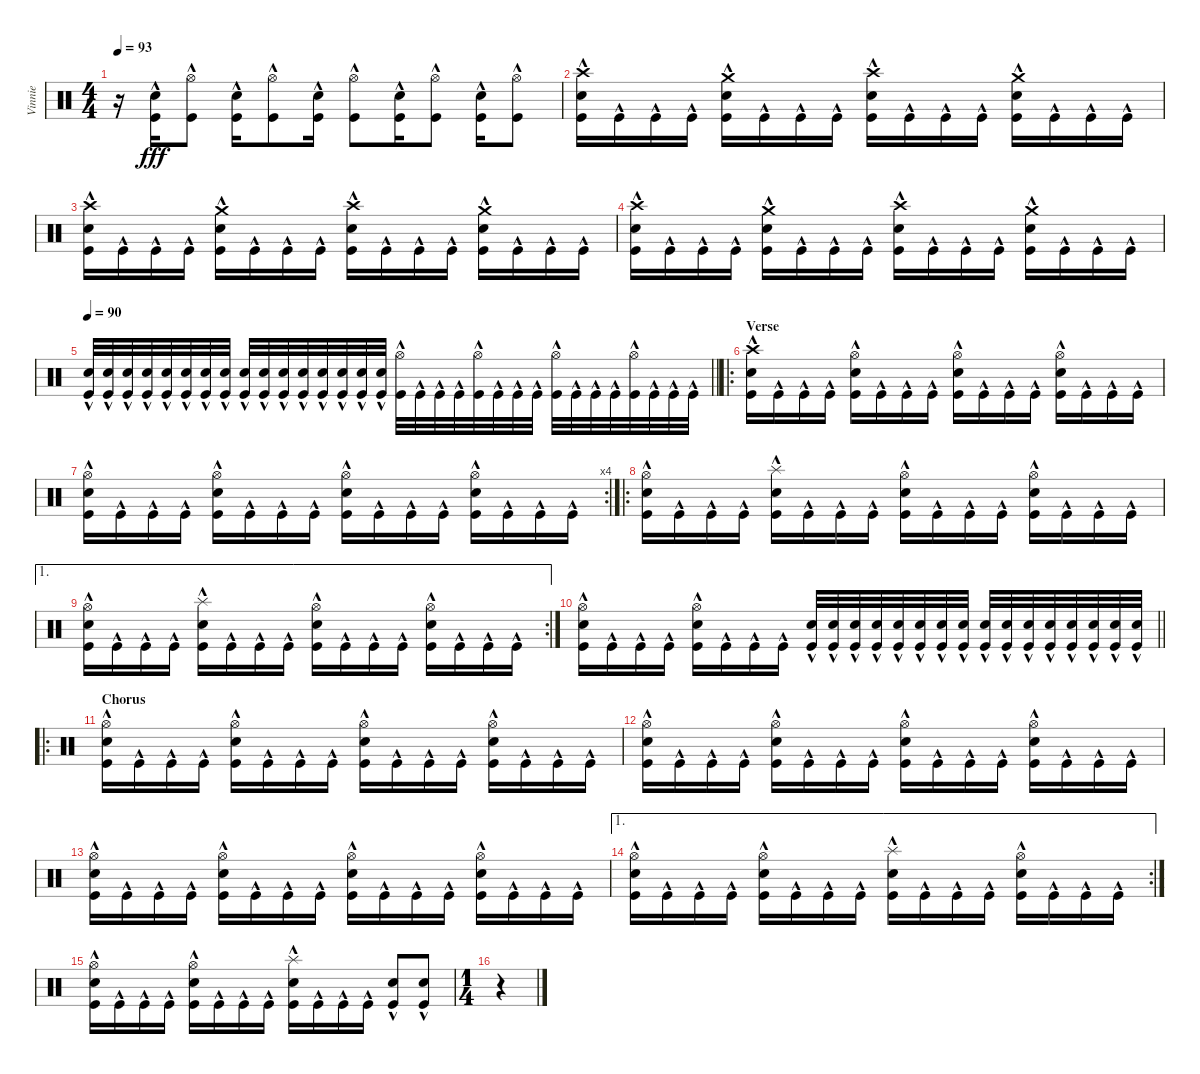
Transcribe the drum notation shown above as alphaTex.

\track ("Vinnie" "Vinnie") {instrument percussion}
\staff {score}
\articulation defaults
\ts (4 4)
\tempo 93
\clef neutral
\ks c
r.16{dy fff} ("Electric Snare (hit)" "Kick (hit)"{hac}).16 ("Hi-Hat (open)" "Kick (hit)"{hac}).8 ("Electric Snare (hit)" "Kick (hit)"{hac}).16 ("Hi-Hat (open)" "Kick (hit)"{hac}).8 ("Electric Snare (hit)" "Kick (hit)"{hac}).16 ("Hi-Hat (open)" "Kick (hit)"{hac}).8 ("Electric Snare (hit)" "Kick (hit)"{hac}).16 ("Hi-Hat (open)" "Kick (hit)"{hac}).8 ("Electric Snare (hit)" "Kick (hit)"{hac}).16 ("Hi-Hat (open)" "Kick (hit)"{hac}).8 |
("Crash high (hit)" "Electric Snare (hit)" "Kick (hit)"{hac}).16 "Kick (hit)"{hac}.16 "Kick (hit)"{hac}.16 "Kick (hit)"{hac}.16 ("Crash medium (hit)" "Electric Snare (hit)" "Kick (hit)"{hac}).16 "Kick (hit)"{hac}.16 "Kick (hit)"{hac}.16 "Kick (hit)"{hac}.16 ("Crash high (hit)" "Electric Snare (hit)" "Kick (hit)"{hac}).16 "Kick (hit)"{hac}.16 "Kick (hit)"{hac}.16 "Kick (hit)"{hac}.16 ("Crash medium (hit)" "Electric Snare (hit)" "Kick (hit)"{hac}).16 "Kick (hit)"{hac}.16 "Kick (hit)"{hac}.16 "Kick (hit)"{hac}.16 |
("Crash high (hit)" "Electric Snare (hit)" "Kick (hit)"{hac}).16 "Kick (hit)"{hac}.16 "Kick (hit)"{hac}.16 "Kick (hit)"{hac}.16 ("Crash medium (hit)" "Electric Snare (hit)" "Kick (hit)"{hac}).16 "Kick (hit)"{hac}.16 "Kick (hit)"{hac}.16 "Kick (hit)"{hac}.16 ("Crash high (hit)" "Electric Snare (hit)" "Kick (hit)"{hac}).16 "Kick (hit)"{hac}.16 "Kick (hit)"{hac}.16 "Kick (hit)"{hac}.16 ("Crash medium (hit)" "Electric Snare (hit)" "Kick (hit)"{hac}).16 "Kick (hit)"{hac}.16 "Kick (hit)"{hac}.16 "Kick (hit)"{hac}.16 |
("Crash high (hit)" "Electric Snare (hit)" "Kick (hit)"{hac}).16 "Kick (hit)"{hac}.16 "Kick (hit)"{hac}.16 "Kick (hit)"{hac}.16 ("Crash medium (hit)" "Electric Snare (hit)" "Kick (hit)"{hac}).16 "Kick (hit)"{hac}.16 "Kick (hit)"{hac}.16 "Kick (hit)"{hac}.16 ("Crash high (hit)" "Electric Snare (hit)" "Kick (hit)"{hac}).16 "Kick (hit)"{hac}.16 "Kick (hit)"{hac}.16 "Kick (hit)"{hac}.16 ("Crash medium (hit)" "Electric Snare (hit)" "Kick (hit)"{hac}).16 "Kick (hit)"{hac}.16 "Kick (hit)"{hac}.16 "Kick (hit)"{hac}.16 |
\tempo 90
\barLineRight lightlight
("Electric Snare (hit)" "Kick (hit)"{hac}).32 ("Electric Snare (hit)" "Kick (hit)"{hac}).32 ("Electric Snare (hit)" "Kick (hit)"{hac}).32 ("Electric Snare (hit)" "Kick (hit)"{hac}).32 ("Electric Snare (hit)" "Kick (hit)"{hac}).32 ("Electric Snare (hit)" "Kick (hit)"{hac}).32 ("Electric Snare (hit)" "Kick (hit)"{hac}).32 ("Electric Snare (hit)" "Kick (hit)"{hac}).32 ("Electric Snare (hit)" "Kick (hit)"{hac}).32 ("Electric Snare (hit)" "Kick (hit)"{hac}).32 ("Electric Snare (hit)" "Kick (hit)"{hac}).32 ("Electric Snare (hit)" "Kick (hit)"{hac}).32 ("Electric Snare (hit)" "Kick (hit)"{hac}).32 ("Electric Snare (hit)" "Kick (hit)"{hac}).32 ("Electric Snare (hit)" "Kick (hit)"{hac}).32 ("Electric Snare (hit)" "Kick (hit)"{hac}).32 ("Hi-Hat (open)" "Kick (hit)"{hac}).32 "Kick (hit)"{hac}.32 "Kick (hit)"{hac}.32 "Kick (hit)"{hac}.32 ("Hi-Hat (open)" "Kick (hit)"{hac}).32 "Kick (hit)"{hac}.32 "Kick (hit)"{hac}.32 "Kick (hit)"{hac}.32 ("Hi-Hat (open)" "Kick (hit)"{hac}).32 "Kick (hit)"{hac}.32 "Kick (hit)"{hac}.32 "Kick (hit)"{hac}.32 ("Hi-Hat (open)" "Kick (hit)"{hac}).32 "Kick (hit)"{hac}.32 "Kick (hit)"{hac}.32 "Kick (hit)"{hac}.32 |
\ro
\section ("" "Verse ")
("Crash high (hit)"{hac} "Electric Snare (hit)" "Kick (hit)"{hac}).16 "Kick (hit)"{hac}.16 "Kick (hit)"{hac}.16 "Kick (hit)"{hac}.16 ("Hi-Hat (open)" "Electric Snare (hit)" "Kick (hit)"{hac}).16 "Kick (hit)"{hac}.16 "Kick (hit)"{hac}.16 "Kick (hit)"{hac}.16 ("Hi-Hat (open)" "Electric Snare (hit)" "Kick (hit)"{hac}).16 "Kick (hit)"{hac}.16 "Kick (hit)"{hac}.16 "Kick (hit)"{hac}.16 ("Hi-Hat (open)" "Electric Snare (hit)" "Kick (hit)"{hac}).16 "Kick (hit)"{hac}.16 "Kick (hit)"{hac}.16 "Kick (hit)"{hac}.16 |
\rc 4
("Hi-Hat (open)"{hac} "Electric Snare (hit)" "Kick (hit)"{hac}).16 "Kick (hit)"{hac}.16 "Kick (hit)"{hac}.16 "Kick (hit)"{hac}.16 ("Hi-Hat (open)" "Electric Snare (hit)" "Kick (hit)"{hac}).16 "Kick (hit)"{hac}.16 "Kick (hit)"{hac}.16 "Kick (hit)"{hac}.16 ("Hi-Hat (open)" "Electric Snare (hit)" "Kick (hit)"{hac}).16 "Kick (hit)"{hac}.16 "Kick (hit)"{hac}.16 "Kick (hit)"{hac}.16 ("Hi-Hat (open)" "Electric Snare (hit)" "Kick (hit)"{hac}).16 "Kick (hit)"{hac}.16 "Kick (hit)"{hac}.16 "Kick (hit)"{hac}.16 |
\ro
("Hi-Hat (open)"{hac} "Electric Snare (hit)" "Kick (hit)"{hac}).16 "Kick (hit)"{hac}.16 "Kick (hit)"{hac}.16 "Kick (hit)"{hac}.16 ("Splash (hit)"{hac} "Electric Snare (hit)" "Kick (hit)"{hac}).16 "Kick (hit)"{hac}.16 "Kick (hit)"{hac}.16 "Kick (hit)"{hac}.16 ("Hi-Hat (open)" "Electric Snare (hit)" "Kick (hit)"{hac}).16 "Kick (hit)"{hac}.16 "Kick (hit)"{hac}.16 "Kick (hit)"{hac}.16 ("Hi-Hat (open)" "Electric Snare (hit)" "Kick (hit)"{hac}).16 "Kick (hit)"{hac}.16 "Kick (hit)"{hac}.16 "Kick (hit)"{hac}.16 |
\ae 1
\rc 2
("Hi-Hat (open)"{hac} "Electric Snare (hit)" "Kick (hit)"{hac}).16 "Kick (hit)"{hac}.16 "Kick (hit)"{hac}.16 "Kick (hit)"{hac}.16 ("Splash (hit)"{hac} "Electric Snare (hit)" "Kick (hit)"{hac}).16 "Kick (hit)"{hac}.16 "Kick (hit)"{hac}.16 "Kick (hit)"{hac}.16 ("Hi-Hat (open)" "Electric Snare (hit)" "Kick (hit)"{hac}).16 "Kick (hit)"{hac}.16 "Kick (hit)"{hac}.16 "Kick (hit)"{hac}.16 ("Hi-Hat (open)" "Electric Snare (hit)" "Kick (hit)"{hac}).16 "Kick (hit)"{hac}.16 "Kick (hit)"{hac}.16 "Kick (hit)"{hac}.16 |
\barLineRight lightlight
("Hi-Hat (open)"{hac} "Electric Snare (hit)" "Kick (hit)"{hac}).16 "Kick (hit)"{hac}.16 "Kick (hit)"{hac}.16 "Kick (hit)"{hac}.16 ("Hi-Hat (open)"{hac} "Electric Snare (hit)" "Kick (hit)"{hac}).16 "Kick (hit)"{hac}.16 "Kick (hit)"{hac}.16 "Kick (hit)"{hac}.16 ("Electric Snare (hit)" "Kick (hit)"{hac}).32 ("Electric Snare (hit)" "Kick (hit)"{hac}).32 ("Electric Snare (hit)" "Kick (hit)"{hac}).32 ("Electric Snare (hit)" "Kick (hit)"{hac}).32 ("Electric Snare (hit)" "Kick (hit)"{hac}).32 ("Electric Snare (hit)" "Kick (hit)"{hac}).32 ("Electric Snare (hit)" "Kick (hit)"{hac}).32 ("Electric Snare (hit)" "Kick (hit)"{hac}).32 ("Electric Snare (hit)" "Kick (hit)"{hac}).32 ("Electric Snare (hit)" "Kick (hit)"{hac}).32 ("Electric Snare (hit)" "Kick (hit)"{hac}).32 ("Electric Snare (hit)" "Kick (hit)"{hac}).32 ("Electric Snare (hit)" "Kick (hit)"{hac}).32 ("Electric Snare (hit)" "Kick (hit)"{hac}).32 ("Electric Snare (hit)" "Kick (hit)"{hac}).32 ("Electric Snare (hit)" "Kick (hit)"{hac}).32 |
\ro
\section ("" "Chorus")
("Hi-Hat (open)"{hac} "Electric Snare (hit)" "Kick (hit)"{hac}).16 "Kick (hit)"{hac}.16 "Kick (hit)"{hac}.16 "Kick (hit)"{hac}.16 ("Hi-Hat (open)" "Electric Snare (hit)" "Kick (hit)"{hac}).16 "Kick (hit)"{hac}.16 "Kick (hit)"{hac}.16 "Kick (hit)"{hac}.16 ("Hi-Hat (open)" "Electric Snare (hit)" "Kick (hit)"{hac}).16 "Kick (hit)"{hac}.16 "Kick (hit)"{hac}.16 "Kick (hit)"{hac}.16 ("Hi-Hat (open)" "Electric Snare (hit)" "Kick (hit)"{hac}).16 "Kick (hit)"{hac}.16 "Kick (hit)"{hac}.16 "Kick (hit)"{hac}.16 |
("Hi-Hat (open)"{hac} "Electric Snare (hit)" "Kick (hit)"{hac}).16 "Kick (hit)"{hac}.16 "Kick (hit)"{hac}.16 "Kick (hit)"{hac}.16 ("Hi-Hat (open)" "Electric Snare (hit)" "Kick (hit)"{hac}).16 "Kick (hit)"{hac}.16 "Kick (hit)"{hac}.16 "Kick (hit)"{hac}.16 ("Hi-Hat (open)" "Electric Snare (hit)" "Kick (hit)"{hac}).16 "Kick (hit)"{hac}.16 "Kick (hit)"{hac}.16 "Kick (hit)"{hac}.16 ("Hi-Hat (open)" "Electric Snare (hit)" "Kick (hit)"{hac}).16 "Kick (hit)"{hac}.16 "Kick (hit)"{hac}.16 "Kick (hit)"{hac}.16 |
("Hi-Hat (open)"{hac} "Electric Snare (hit)" "Kick (hit)"{hac}).16 "Kick (hit)"{hac}.16 "Kick (hit)"{hac}.16 "Kick (hit)"{hac}.16 ("Hi-Hat (open)" "Electric Snare (hit)" "Kick (hit)"{hac}).16 "Kick (hit)"{hac}.16 "Kick (hit)"{hac}.16 "Kick (hit)"{hac}.16 ("Hi-Hat (open)" "Electric Snare (hit)" "Kick (hit)"{hac}).16 "Kick (hit)"{hac}.16 "Kick (hit)"{hac}.16 "Kick (hit)"{hac}.16 ("Hi-Hat (open)" "Electric Snare (hit)" "Kick (hit)"{hac}).16 "Kick (hit)"{hac}.16 "Kick (hit)"{hac}.16 "Kick (hit)"{hac}.16 |
\ae 1
\rc 2
("Hi-Hat (open)"{hac} "Electric Snare (hit)" "Kick (hit)"{hac}).16 "Kick (hit)"{hac}.16 "Kick (hit)"{hac}.16 "Kick (hit)"{hac}.16 ("Hi-Hat (open)" "Electric Snare (hit)" "Kick (hit)"{hac}).16 "Kick (hit)"{hac}.16 "Kick (hit)"{hac}.16 "Kick (hit)"{hac}.16 ("Splash (hit)" "Electric Snare (hit)" "Kick (hit)"{hac}).16 "Kick (hit)"{hac}.16 "Kick (hit)"{hac}.16 "Kick (hit)"{hac}.16 ("Hi-Hat (open)" "Electric Snare (hit)" "Kick (hit)"{hac}).16 "Kick (hit)"{hac}.16 "Kick (hit)"{hac}.16 "Kick (hit)"{hac}.16 |
("Hi-Hat (open)"{hac} "Electric Snare (hit)" "Kick (hit)"{hac}).16 "Kick (hit)"{hac}.16 "Kick (hit)"{hac}.16 "Kick (hit)"{hac}.16 ("Hi-Hat (open)" "Electric Snare (hit)" "Kick (hit)"{hac}).16 "Kick (hit)"{hac}.16 "Kick (hit)"{hac}.16 "Kick (hit)"{hac}.16 ("Splash (hit)" "Electric Snare (hit)" "Kick (hit)"{hac}).16 "Kick (hit)"{hac}.16 "Kick (hit)"{hac}.16 "Kick (hit)"{hac}.16 ("Electric Snare (hit)"{hac} "Kick (hit)"{hac}).8 ("Electric Snare (hit)"{hac} "Kick (hit)"{hac}).8 |
\ts (1 4)
r.4
